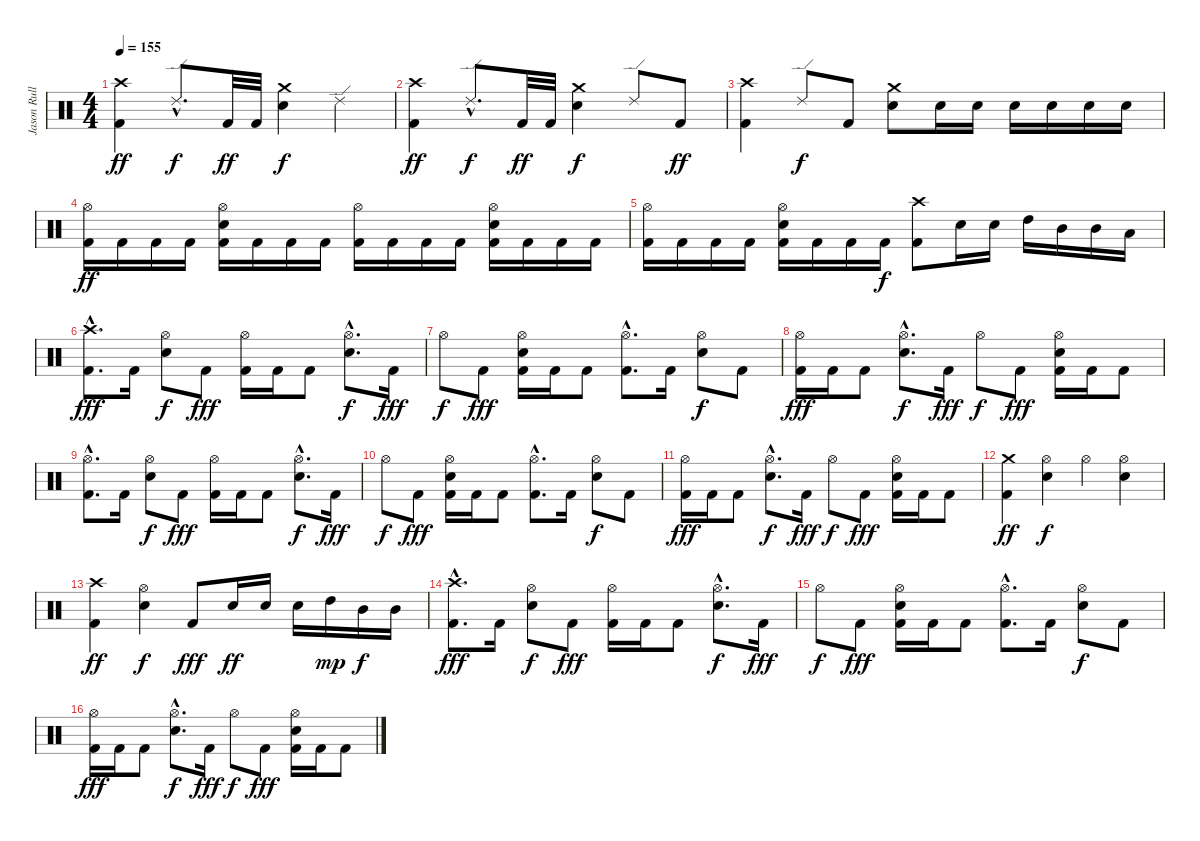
\track ("Jason Rullo" "Jason Rull") {instrument percussion}
\staff {score}
\articulation defaults
\ts (4 4)
\tempo 155
\clef neutral
\ks c
("Crash high (hit)" "Kick (hit) 2").4{dy ff} "Ride (edge) 2"{hac}.8{d dy f} "Kick (hit) 2".32{dy ff} "Kick (hit) 2".32 ("Crash medium (hit)" "Electric Snare (hit)").4{dy f} "Ride (edge) 2".4 |
("Crash high (hit)" "Kick (hit) 2").4{dy ff} "Ride (edge) 2"{hac}.8{d dy f} "Kick (hit) 2".32{dy ff} "Kick (hit) 2".32 ("Crash medium (hit)" "Electric Snare (hit)").4{dy f} "Ride (edge) 2".8 "Kick (hit) 2".8{dy ff} |
("Crash high (hit)" "Kick (hit) 2").4 "Ride (edge) 2".8{dy f} "Kick (hit) 2".8 ("Crash medium (hit)" "Electric Snare (hit)").8 "Electric Snare (hit)".16 "Electric Snare (hit)".16 "Electric Snare (hit)".16 "Electric Snare (hit)".16 "Electric Snare (hit)".16 "Electric Snare (hit)".16 |
("Hi-Hat (open)" "Kick (hit) 2").16{dy ff} "Kick (hit) 2".16 "Kick (hit) 2".16 "Kick (hit) 2".16 ("Hi-Hat (open)" "Electric Snare (hit)" "Kick (hit) 2").16 "Kick (hit) 2".16 "Kick (hit) 2".16 "Kick (hit) 2".16 ("Hi-Hat (open)" "Kick (hit) 2").16 "Kick (hit) 2".16 "Kick (hit) 2".16 "Kick (hit) 2".16 ("Hi-Hat (open)" "Electric Snare (hit)" "Kick (hit) 2").16 "Kick (hit) 2".16 "Kick (hit) 2".16 "Kick (hit) 2".16 |
("Hi-Hat (open)" "Kick (hit) 2").16 "Kick (hit) 2".16 "Kick (hit) 2".16 "Kick (hit) 2".16 ("Hi-Hat (open)" "Electric Snare (hit)" "Kick (hit) 2").16 "Kick (hit) 2".16 "Kick (hit) 2".16 "Kick (hit) 2".16{dy f} ("Crash high (hit)" "Kick (hit) 2").8 "Electric Snare (hit)".16 "Electric Snare (hit)".16 "High Tom (hit)".16 "Mid Tom (hit)".16 "Mid Tom (hit)".16 "Low Tom (hit)".16 |
("Crash high (hit)"{hac} "Kick (hit) 2"{hac}).8{d dy fff} "Kick (hit) 2".16 ("Hi-Hat (open)" "Electric Snare (hit)").8{dy f} "Kick (hit) 2".8{dy fff} ("Hi-Hat (open)" "Kick (hit) 2").16 "Kick (hit) 2".16 "Kick (hit) 2".8 ("Hi-Hat (open)"{hac} "Electric Snare (hit)"{hac}).8{d dy f} "Kick (hit) 2".16{dy fff} |
"Hi-Hat (open)".8{dy f} "Kick (hit) 2".8{dy fff} ("Hi-Hat (open)" "Electric Snare (hit)" "Kick (hit) 2").16 "Kick (hit) 2".16 "Kick (hit) 2".8 ("Hi-Hat (open)"{hac} "Kick (hit) 2"{hac}).8{d} "Kick (hit) 2".16 ("Hi-Hat (open)" "Electric Snare (hit)").8{dy f} "Kick (hit) 2".8 |
("Hi-Hat (open)" "Kick (hit) 2").16{dy fff} "Kick (hit) 2".16 "Kick (hit) 2".8 ("Hi-Hat (open)"{hac} "Electric Snare (hit)"{hac}).8{d dy f} "Kick (hit) 2".16{dy fff} "Hi-Hat (open)".8{dy f} "Kick (hit) 2".8{dy fff} ("Hi-Hat (open)" "Electric Snare (hit)" "Kick (hit) 2").16 "Kick (hit) 2".16 "Kick (hit) 2".8 |
("Hi-Hat (open)"{hac} "Kick (hit) 2"{hac}).8{d} "Kick (hit) 2".16 ("Hi-Hat (open)" "Electric Snare (hit)").8{dy f} "Kick (hit) 2".8{dy fff} ("Hi-Hat (open)" "Kick (hit) 2").16 "Kick (hit) 2".16 "Kick (hit) 2".8 ("Hi-Hat (open)"{hac} "Electric Snare (hit)"{hac}).8{d dy f} "Kick (hit) 2".16{dy fff} |
"Hi-Hat (open)".8{dy f} "Kick (hit) 2".8{dy fff} ("Hi-Hat (open)" "Electric Snare (hit)" "Kick (hit) 2").16 "Kick (hit) 2".16 "Kick (hit) 2".8 ("Hi-Hat (open)"{hac} "Kick (hit) 2"{hac}).8{d} "Kick (hit) 2".16 ("Hi-Hat (open)" "Electric Snare (hit)").8{dy f} "Kick (hit) 2".8 |
("Hi-Hat (open)" "Kick (hit) 2").16{dy fff} "Kick (hit) 2".16 "Kick (hit) 2".8 ("Hi-Hat (open)"{hac} "Electric Snare (hit)"{hac}).8{d dy f} "Kick (hit) 2".16{dy fff} "Hi-Hat (open)".8{dy f} "Kick (hit) 2".8{dy fff} ("Hi-Hat (open)" "Electric Snare (hit)" "Kick (hit) 2").16 "Kick (hit) 2".16 "Kick (hit) 2".8 |
("Crash medium (hit)" "Kick (hit) 2").4{dy ff} ("Hi-Hat (open)" "Electric Snare (hit)").4{dy f} "Hi-Hat (open)".4 ("Hi-Hat (open)" "Electric Snare (hit)").4 |
("Crash high (hit)" "Kick (hit) 2").4{dy ff} ("Hi-Hat (open)" "Electric Snare (hit)").4{dy f} "Kick (hit) 2".8{dy fff} "Electric Snare (hit)".16{dy ff} "Electric Snare (hit)".16 "Electric Snare (hit)".16 "High Tom (hit)".16{dy mp} "Mid Tom (hit)".16{dy f} "Mid Tom (hit)".16 |
("Crash high (hit)"{hac} "Kick (hit) 2"{hac}).8{d dy fff} "Kick (hit) 2".16 ("Hi-Hat (open)" "Electric Snare (hit)").8{dy f} "Kick (hit) 2".8{dy fff} ("Hi-Hat (open)" "Kick (hit) 2").16 "Kick (hit) 2".16 "Kick (hit) 2".8 ("Hi-Hat (open)"{hac} "Electric Snare (hit)"{hac}).8{d dy f} "Kick (hit) 2".16{dy fff} |
"Hi-Hat (open)".8{dy f} "Kick (hit) 2".8{dy fff} ("Hi-Hat (open)" "Electric Snare (hit)" "Kick (hit) 2").16 "Kick (hit) 2".16 "Kick (hit) 2".8 ("Hi-Hat (open)"{hac} "Kick (hit) 2"{hac}).8{d} "Kick (hit) 2".16 ("Hi-Hat (open)" "Electric Snare (hit)").8{dy f} "Kick (hit) 2".8 |
("Hi-Hat (open)" "Kick (hit) 2").16{dy fff} "Kick (hit) 2".16 "Kick (hit) 2".8 ("Hi-Hat (open)"{hac} "Electric Snare (hit)"{hac}).8{d dy f} "Kick (hit) 2".16{dy fff} "Hi-Hat (open)".8{dy f} "Kick (hit) 2".8{dy fff} ("Hi-Hat (open)" "Electric Snare (hit)" "Kick (hit) 2").16 "Kick (hit) 2".16 "Kick (hit) 2".8
